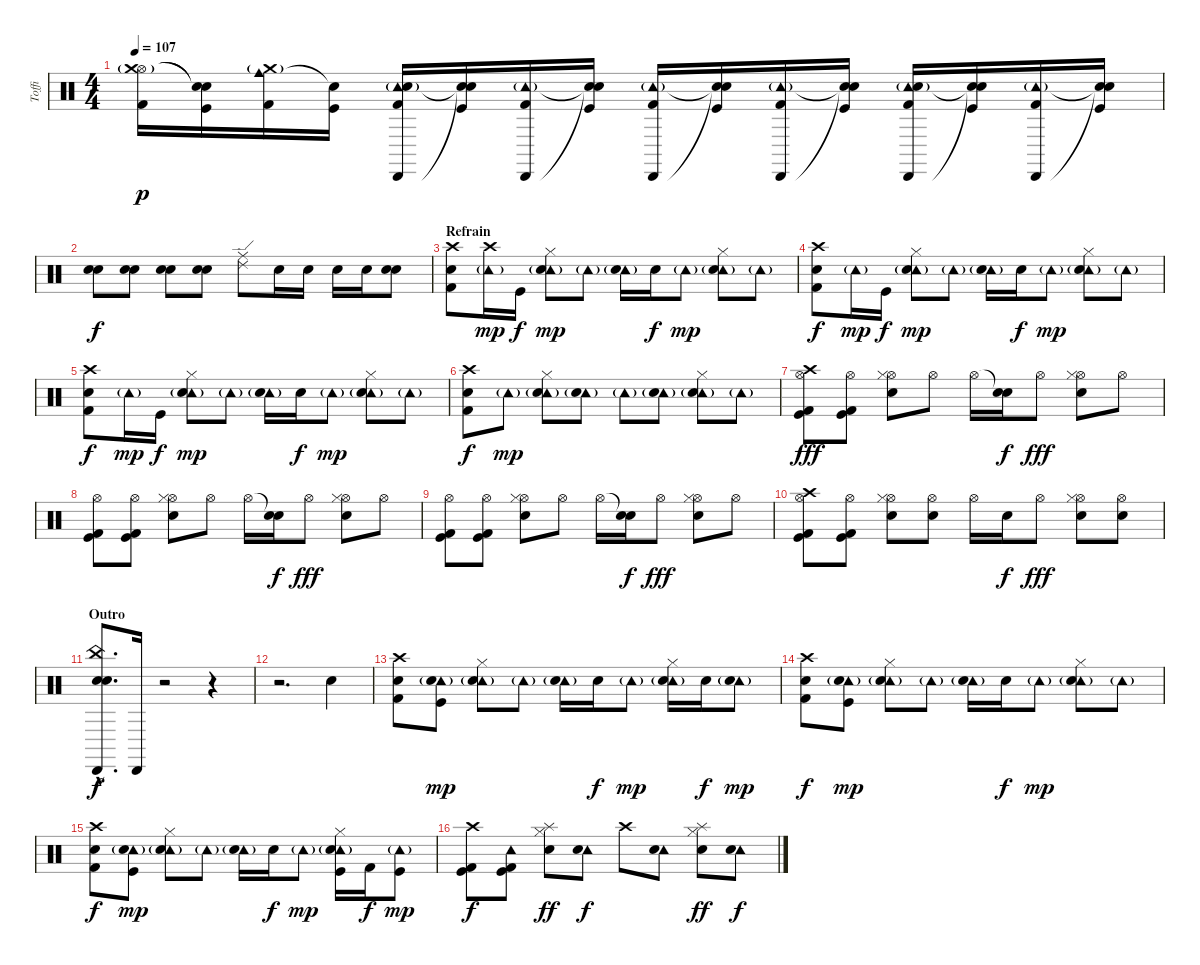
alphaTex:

\track ("Toffi" "Toffi") {instrument percussion}
\staff {score}
\articulation defaults
\ts (4 4)
\tempo 107
\clef neutral
\ks c
("Hi-Hat (open)" "Crash medium (hit)"{g} "Kick (hit) 2").16{dy p} ("Snare (hit)"{t} "Snare (hit)"{t} "Kick (hit)").16 ("Cowbell medium (hit)" "Crash medium (hit)"{g} "Kick (hit) 2").16 ("Snare (hit)"{t} "Kick (hit)").16 ("Cabasa (hit)" "Tambourine (hit)"{g} "Snare (hit) 2" "Kick (hit) 2").16 ("Snare (hit)"{t} "Snare (hit)"{t} "Kick (hit)").16 ("Cabasa (hit)" "Tambourine (hit)"{g} "Kick (hit) 2").16 ("Snare (hit)"{t} "Snare (hit)"{t} "Kick (hit)").16 ("Cabasa (hit)" "Tambourine (hit)"{g} "Kick (hit) 2").16 ("Snare (hit)"{t} "Snare (hit)"{t} "Kick (hit)").16 ("Cabasa (hit)" "Tambourine (hit)"{g} "Kick (hit) 2").16 ("Snare (hit)"{t} "Snare (hit)"{t} "Kick (hit)").16 ("Cabasa (hit)" "Tambourine (hit)"{g} "Snare (hit) 2" "Kick (hit) 2").16 ("Snare (hit)"{t} "Snare (hit)"{t} "Kick (hit)").16 ("Cabasa (hit)" "Tambourine (hit)"{g} "Kick (hit) 2").16 ("Snare (hit)"{t} "Snare (hit)"{t} "Kick (hit)").16 |
("Snare (hit) 2" "Electric Snare (hit)").8{dy f} ("Snare (hit) 2" "Electric Snare (hit)").8 ("Snare (hit) 2" "Electric Snare (hit)").8 ("Snare (hit) 2" "Electric Snare (hit)").8 ("Ride (middle)" "Ride (edge) 2").8 "Snare (hit) 2".16 "Electric Snare (hit)".16 "Snare (hit) 2".16 "Electric Snare (hit)".16 ("Snare (hit) 2" "Electric Snare (hit)").8 |
\section ("" "Refrain")
("Crash high (hit)" "Kick (hit) 2" "Electric Snare (hit)").8 ("Tambourine (hit)"{g} "Crash high (hit)").16{dy mp} "Kick (hit)".16{dy f} ("Tambourine (hit)"{g} "Hi-Hat (closed)" "Snare (hit) 2").8{dy mp} "Tambourine (hit)"{g}.8 ("Tambourine (hit)"{g} "Snare (hit) 2").16 "Electric Snare (hit)".16{dy f} "Tambourine (hit)"{g}.8{dy mp} ("Tambourine (hit)"{g} "Hi-Hat (closed)" "Snare (hit) 2").8 "Tambourine (hit)"{g}.8 |
("Crash high (hit)" "Kick (hit) 2" "Electric Snare (hit)").8{dy f} "Tambourine (hit)"{g}.16{dy mp} "Kick (hit)".16{dy f} ("Tambourine (hit)"{g} "Hi-Hat (closed)" "Snare (hit) 2").8{dy mp} "Tambourine (hit)"{g}.8 ("Tambourine (hit)"{g} "Snare (hit) 2").16 "Electric Snare (hit)".16{dy f} "Tambourine (hit)"{g}.8{dy mp} ("Tambourine (hit)"{g} "Hi-Hat (closed)" "Snare (hit) 2").8 "Tambourine (hit)"{g}.8 |
("Crash high (hit)" "Kick (hit) 2" "Electric Snare (hit)").8{dy f} "Tambourine (hit)"{g}.16{dy mp} "Kick (hit)".16{dy f} ("Tambourine (hit)"{g} "Hi-Hat (closed)" "Snare (hit) 2").8{dy mp} "Tambourine (hit)"{g}.8 ("Tambourine (hit)"{g} "Snare (hit) 2").16 "Electric Snare (hit)".16{dy f} "Tambourine (hit)"{g}.8{dy mp} ("Tambourine (hit)"{g} "Hi-Hat (closed)" "Snare (hit) 2").8 "Tambourine (hit)"{g}.8 |
("Crash high (hit)" "Kick (hit) 2" "Electric Snare (hit)").8{dy f} "Tambourine (hit)"{g}.8{dy mp} ("Tambourine (hit)"{g} "Hi-Hat (closed)" "Snare (hit) 2").8 ("Tambourine (hit)"{g} "Electric Snare (hit)").8 "Tambourine (hit)"{g}.8 ("Tambourine (hit)"{g} "Electric Snare (hit)").8 ("Tambourine (hit)"{g} "Hi-Hat (closed)" "Snare (hit) 2").8 "Tambourine (hit)"{g}.8 |
("Hi-Hat (open)" "Crash high (hit)" "Kick (hit) 2" "Kick (hit)").8{dy fff} ("Hi-Hat (open)" "Kick (hit) 2" "Kick (hit)").8 ("Hi-Hat (open)" "Hi-Hat (closed)" "Snare (hit) 2").8 "Hi-Hat (open)".8 "Hi-Hat (open)".16 ("Snare (hit)"{t} "Snare (hit) 2").16{dy f} "Hi-Hat (open)".8{dy fff} ("Hi-Hat (open)" "Hi-Hat (closed)" "Snare (hit) 2").8 "Hi-Hat (open)".8 |
("Hi-Hat (open)" "Kick (hit) 2" "Kick (hit)").8 ("Hi-Hat (open)" "Kick (hit) 2" "Kick (hit)").8 ("Hi-Hat (open)" "Hi-Hat (closed)" "Snare (hit) 2").8 "Hi-Hat (open)".8 "Hi-Hat (open)".16 ("Snare (hit)"{t} "Snare (hit) 2").16{dy f} "Hi-Hat (open)".8{dy fff} ("Hi-Hat (open)" "Hi-Hat (closed)" "Snare (hit) 2").8 "Hi-Hat (open)".8 |
("Hi-Hat (open)" "Kick (hit) 2" "Kick (hit)").8 ("Hi-Hat (open)" "Kick (hit) 2" "Kick (hit)").8 ("Hi-Hat (open)" "Hi-Hat (closed)" "Snare (hit) 2").8 "Hi-Hat (open)".8 "Hi-Hat (open)".16 ("Snare (hit)"{t} "Snare (hit) 2").16{dy f} "Hi-Hat (open)".8{dy fff} ("Hi-Hat (open)" "Hi-Hat (closed)" "Snare (hit) 2").8 "Hi-Hat (open)".8 |
("Hi-Hat (open)" "Crash high (hit)" "Kick (hit) 2" "Kick (hit)").8 ("Hi-Hat (open)" "Kick (hit) 2" "Kick (hit)").8 ("Hi-Hat (open)" "Hi-Hat (closed)" "Snare (hit) 2").8 ("Hi-Hat (open)" "Snare (hit) 2").8 "Hi-Hat (open)".16 "Electric Snare (hit)".16{dy f} "Hi-Hat (open)".8{dy fff} ("Hi-Hat (open)" "Hi-Hat (closed)" "Snare (hit) 2").8 ("Hi-Hat (open)" "Snare (hit) 2").8 |
\section ("" "Outro")
("Snare (hit) 2"{hac} "Electric Snare (hit)"{hac} "China (hit)"{hac} "Cabasa (hit)"{hac}).8{d dy f} "Cabasa (hit)".16 r.2 r.4 |
r.2{d} "Electric Snare (hit)".4 |
("Crash high (hit)" "Kick (hit) 2" "Electric Snare (hit)").8 ("Tambourine (hit)"{g} "Kick (hit)" "Electric Snare (hit)").8{dy mp} ("Tambourine (hit)"{g} "Hi-Hat (closed)" "Snare (hit) 2").8 "Tambourine (hit)"{g}.8 ("Tambourine (hit)"{g} "Snare (hit) 2").16 "Electric Snare (hit)".16{dy f} "Tambourine (hit)"{g}.8{dy mp} ("Tambourine (hit)"{g} "Hi-Hat (closed)" "Snare (hit) 2").16 "Snare (hit) 2".16{dy f} ("Tambourine (hit)"{g} "Snare (hit) 2").8{dy mp} |
("Crash high (hit)" "Kick (hit) 2" "Electric Snare (hit)").8{dy f} ("Tambourine (hit)"{g} "Kick (hit)" "Electric Snare (hit)").8{dy mp} ("Tambourine (hit)"{g} "Hi-Hat (closed)" "Snare (hit) 2").8 "Tambourine (hit)"{g}.8 ("Tambourine (hit)"{g} "Snare (hit) 2").16 "Electric Snare (hit)".16{dy f} "Tambourine (hit)"{g}.8{dy mp} ("Tambourine (hit)"{g} "Hi-Hat (closed)" "Snare (hit) 2").8 "Tambourine (hit)"{g}.8 |
("Crash high (hit)" "Kick (hit) 2" "Electric Snare (hit)").8{dy f} ("Tambourine (hit)"{g} "Kick (hit)" "Electric Snare (hit)").8{dy mp} ("Tambourine (hit)"{g} "Hi-Hat (closed)" "Snare (hit) 2").8 "Tambourine (hit)"{g}.8 ("Tambourine (hit)"{g} "Snare (hit) 2").16 "Electric Snare (hit)".16{dy f} "Tambourine (hit)"{g}.8{dy mp} ("Tambourine (hit)"{g} "Hi-Hat (closed)" "Kick (hit)" "Snare (hit) 2").16 "Kick (hit) 2".16{dy f} ("Tambourine (hit)"{g} "Kick (hit)").8{dy mp} |
("Crash high (hit)" "Kick (hit) 2" "Kick (hit)").8{dy f} ("Tambourine (hit)" "Kick (hit) 2" "Kick (hit)").8 ("Splash (hit)" "Hi-Hat (closed)" "Snare (hit) 2").8{dy ff} ("Tambourine (hit)" "Electric Snare (hit)").8{dy f} "Crash high (hit)".8 ("Tambourine (hit)" "Snare (hit) 2").8 ("Splash (hit)" "Hi-Hat (closed)" "Snare (hit) 2").8{dy ff} ("Tambourine (hit)" "Electric Snare (hit)").8{dy f}
